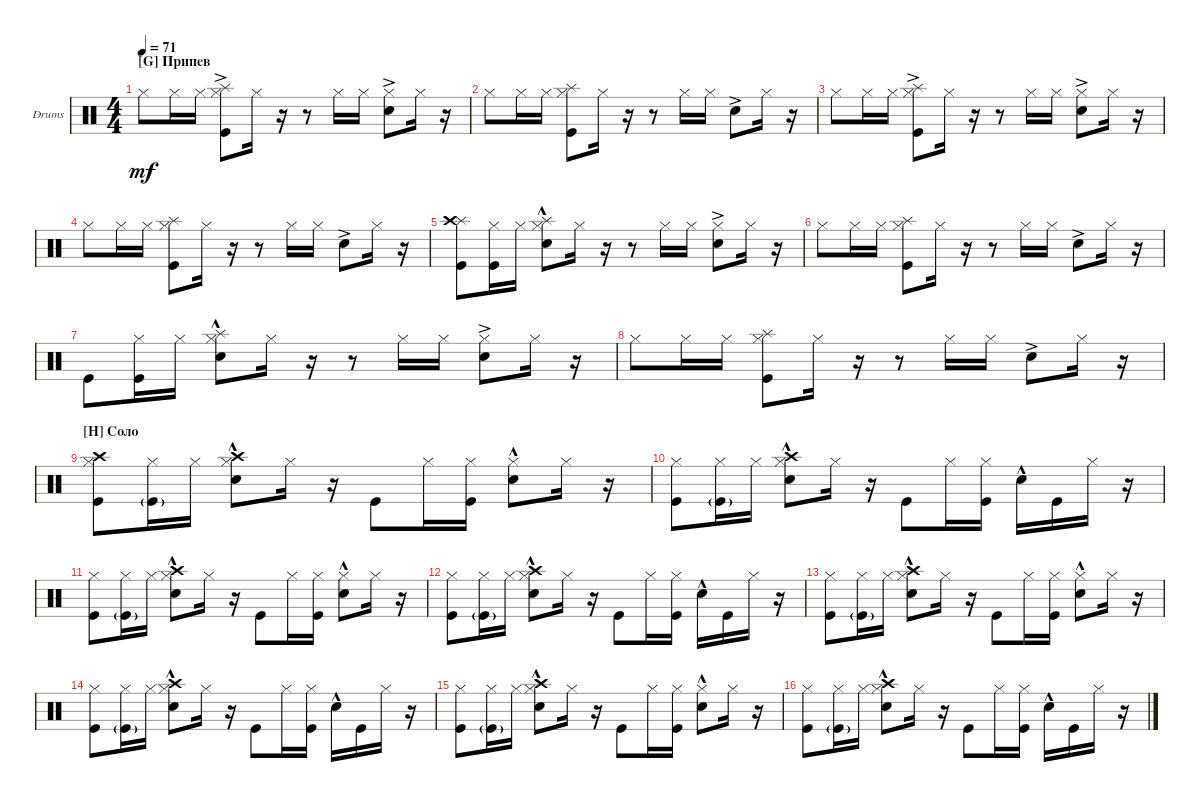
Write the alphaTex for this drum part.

\defaultSystemsLayout 4
\bracketExtendMode groupsimilarinstruments
\firstSystemTrackNameOrientation horizontal
\otherSystemsTrackNameOrientation horizontal
\track ("Drumkit" "Drums") {instrument percussion}
\staff {score}
\articulation defaults
\ts (4 4)
\section ("G" "Припев")
\tempo 71
\clef neutral
\ks c "Hi-Hat (closed)".8{dy mf} "Hi-Hat (closed)".16 "Hi-Hat (closed)".16
("Hi-Hat (closed)" "Splash (hit)" "Kick (hit)"{ac}).8 "Hi-Hat (closed)".16 r.16 r.8 "Hi-Hat (closed)".16 "Hi-Hat (closed)".16 ("Hi-Hat (closed)" "Snare (hit) 2"{ac}).8 "Hi-Hat (closed)".16 r.16 |
"Hi-Hat (closed)".8 "Hi-Hat (closed)".16 "Hi-Hat (closed)".16 ("Hi-Hat (closed)" "Splash (hit)" "Kick (hit)").8 "Hi-Hat (closed)".16 r.16 r.8 "Hi-Hat (closed)".16 "Hi-Hat (closed)".16 "Snare (hit) 2"{ac}.8 "Hi-Hat (closed)".16 r.16 |
"Hi-Hat (closed)".8 "Hi-Hat (closed)".16 "Hi-Hat (closed)".16 ("Hi-Hat (closed)" "Splash (hit)" "Kick (hit)"{ac}).8 "Hi-Hat (closed)".16 r.16 r.8 "Hi-Hat (closed)".16 "Hi-Hat (closed)".16 ("Hi-Hat (closed)" "Snare (hit) 2"{ac}).8 "Hi-Hat (closed)".16 r.16 |
"Hi-Hat (closed)".8 "Hi-Hat (closed)".16 "Hi-Hat (closed)".16 ("Hi-Hat (closed)" "Splash (hit)" "Kick (hit)").8 "Hi-Hat (closed)".16 r.16 r.8 "Hi-Hat (closed)".16 "Hi-Hat (closed)".16 "Snare (hit) 2"{ac}.8 "Hi-Hat (closed)".16 r.16 |
("Splash (hit)" "Kick (hit)" "Crash high (hit)").8 ("Hi-Hat (closed)" "Kick (hit)").16 "Hi-Hat (closed)".16 ("Hi-Hat (closed)" "Splash (hit)" "Snare (hit) 2"{hac}).8 "Hi-Hat (closed)".16 r.16 r.8 "Hi-Hat (closed)".16 "Hi-Hat (closed)".16 ("Hi-Hat (closed)" "Snare (hit) 2"{ac}).8 "Hi-Hat (closed)".16 r.16 |
"Hi-Hat (closed)".8 "Hi-Hat (closed)".16 "Hi-Hat (closed)".16 ("Hi-Hat (closed)" "Splash (hit)" "Kick (hit)").8 "Hi-Hat (closed)".16 r.16 r.8 "Hi-Hat (closed)".16 "Hi-Hat (closed)".16 "Snare (hit) 2"{ac}.8 "Hi-Hat (closed)".16 r.16 |
"Kick (hit)".8 ("Hi-Hat (closed)" "Kick (hit)").16 "Hi-Hat (closed)".16 ("Hi-Hat (closed)" "Splash (hit)" "Snare (hit) 2"{hac}).8 "Hi-Hat (closed)".16 r.16 r.8 "Hi-Hat (closed)".16 "Hi-Hat (closed)".16 ("Hi-Hat (closed)" "Snare (hit) 2"{ac}).8 "Hi-Hat (closed)".16 r.16 |
"Hi-Hat (closed)".8 "Hi-Hat (closed)".16 "Hi-Hat (closed)".16 ("Hi-Hat (closed)" "Splash (hit)" "Kick (hit)").8 "Hi-Hat (closed)".16 r.16 r.8 "Hi-Hat (closed)".16 "Hi-Hat (closed)".16 "Snare (hit) 2"{ac}.8 "Hi-Hat (closed)".16 r.16 |
\section ("H" "Соло")
("Hi-Hat (closed)" "Crash high (hit)" "Kick (hit)").8 ("Hi-Hat (closed)" "Kick (hit)"{g}).16 "Hi-Hat (closed)".16 ("Hi-Hat (closed)" "Snare (hit) 2"{hac} "Crash high (hit)").8 "Hi-Hat (closed)".16 r.16 "Kick (hit)".8 "Hi-Hat (closed)".16 ("Hi-Hat (closed)" "Kick (hit)").16 ("Hi-Hat (closed)" "Snare (hit) 2"{hac}).8 "Hi-Hat (closed)".16 r.16 |
("Hi-Hat (closed)" "Kick (hit)").8 ("Hi-Hat (closed)" "Kick (hit)"{g}).16 "Hi-Hat (closed)".16 ("Hi-Hat (closed)" "Snare (hit) 2"{hac} "Crash high (hit)").8 "Hi-Hat (closed)".16 r.16 "Kick (hit)".8 "Hi-Hat (closed)".16 ("Hi-Hat (closed)" "Kick (hit)").16 "Snare (hit) 2"{hac}.16 "Kick (hit)".16 "Hi-Hat (closed)".16 r.16 |
("Hi-Hat (closed)" "Kick (hit)").8 ("Hi-Hat (closed)" "Kick (hit)"{g}).16 "Hi-Hat (closed)".16 ("Hi-Hat (closed)" "Snare (hit) 2"{hac} "Crash high (hit)").8 "Hi-Hat (closed)".16 r.16 "Kick (hit)".8 "Hi-Hat (closed)".16 ("Hi-Hat (closed)" "Kick (hit)").16 ("Hi-Hat (closed)" "Snare (hit) 2"{hac}).8 "Hi-Hat (closed)".16 r.16 |
("Hi-Hat (closed)" "Kick (hit)").8 ("Hi-Hat (closed)" "Kick (hit)"{g}).16 "Hi-Hat (closed)".16 ("Hi-Hat (closed)" "Snare (hit) 2"{hac} "Crash high (hit)").8 "Hi-Hat (closed)".16 r.16 "Kick (hit)".8 "Hi-Hat (closed)".16 ("Hi-Hat (closed)" "Kick (hit)").16 "Snare (hit) 2"{hac}.16 "Kick (hit)".16 "Hi-Hat (closed)".16 r.16 |
("Hi-Hat (closed)" "Kick (hit)").8 ("Hi-Hat (closed)" "Kick (hit)"{g}).16 "Hi-Hat (closed)".16 ("Hi-Hat (closed)" "Snare (hit) 2"{hac} "Crash high (hit)").8 "Hi-Hat (closed)".16 r.16 "Kick (hit)".8 "Hi-Hat (closed)".16 ("Hi-Hat (closed)" "Kick (hit)").16 ("Hi-Hat (closed)" "Snare (hit) 2"{hac}).8 "Hi-Hat (closed)".16 r.16 |
("Hi-Hat (closed)" "Kick (hit)").8 ("Hi-Hat (closed)" "Kick (hit)"{g}).16 "Hi-Hat (closed)".16 ("Hi-Hat (closed)" "Snare (hit) 2"{hac} "Crash high (hit)").8 "Hi-Hat (closed)".16 r.16 "Kick (hit)".8 "Hi-Hat (closed)".16 ("Hi-Hat (closed)" "Kick (hit)").16 "Snare (hit) 2"{hac}.16 "Kick (hit)".16 "Hi-Hat (closed)".16 r.16 |
("Hi-Hat (closed)" "Kick (hit)").8 ("Hi-Hat (closed)" "Kick (hit)"{g}).16 "Hi-Hat (closed)".16 ("Hi-Hat (closed)" "Snare (hit) 2"{hac} "Crash high (hit)").8 "Hi-Hat (closed)".16 r.16 "Kick (hit)".8 "Hi-Hat (closed)".16 ("Hi-Hat (closed)" "Kick (hit)").16 ("Hi-Hat (closed)" "Snare (hit) 2"{hac}).8 "Hi-Hat (closed)".16 r.16 |
("Hi-Hat (closed)" "Kick (hit)").8 ("Hi-Hat (closed)" "Kick (hit)"{g}).16 "Hi-Hat (closed)".16 ("Hi-Hat (closed)" "Snare (hit) 2"{hac} "Crash high (hit)").8 "Hi-Hat (closed)".16 r.16 "Kick (hit)".8 "Hi-Hat (closed)".16 ("Hi-Hat (closed)" "Kick (hit)").16 "Snare (hit) 2"{hac}.16 "Kick (hit)".16 "Hi-Hat (closed)".16 r.16
